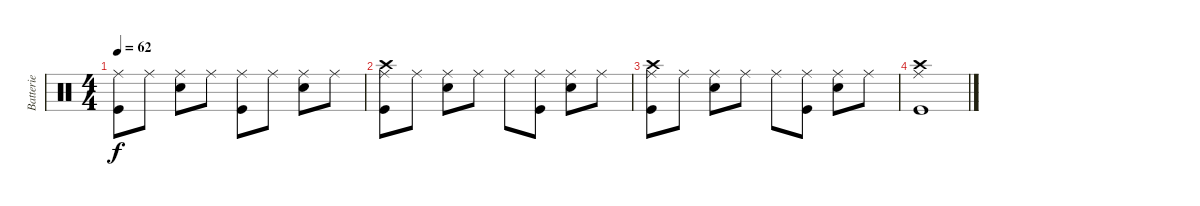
\track ("Batterie" "Batterie") {instrument percussion}
\staff {score}
\articulation defaults
\ts (4 4)
\tempo 62
\clef neutral
\ks c
("Ride (middle)" "Kick (hit)").8{dy f} "Ride (middle)".8 ("Ride (middle)" "Snare (hit) 2").8 "Ride (middle)".8 ("Ride (middle)" "Kick (hit)").8 "Ride (middle)".8 ("Ride (middle)" "Snare (hit) 2").8 "Ride (middle)".8 |
("Ride (middle)" "Crash high (hit)" "Kick (hit)").8 "Ride (middle)".8 ("Ride (middle)" "Snare (hit) 2").8 "Ride (middle)".8 "Ride (middle)".8 ("Ride (middle)" "Kick (hit)").8 ("Ride (middle)" "Snare (hit) 2").8 "Ride (middle)".8 |
("Ride (middle)" "Crash high (hit)" "Kick (hit)").8 "Ride (middle)".8 ("Ride (middle)" "Snare (hit) 2").8 "Ride (middle)".8 "Ride (middle)".8 ("Ride (middle)" "Kick (hit)").8 ("Ride (middle)" "Snare (hit) 2").8 "Ride (middle)".8 |
\section ("" "")
("Ride (middle)" "Crash high (hit)" "Kick (hit)").1
